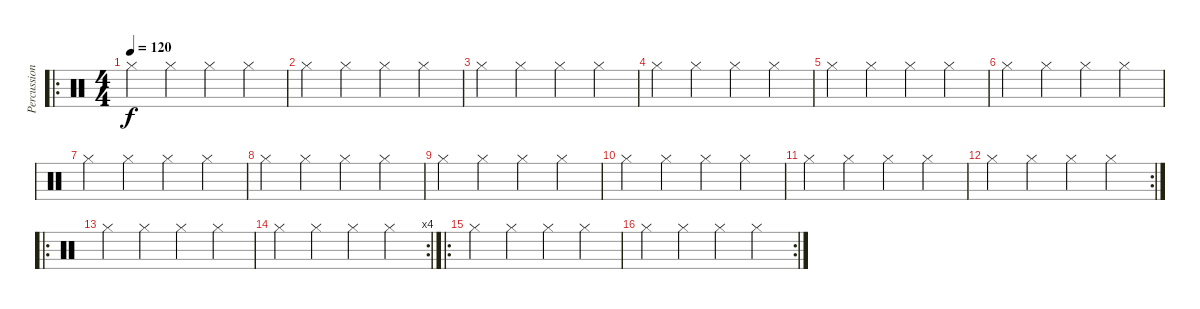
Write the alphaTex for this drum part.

\track ("Percussioni" "Percussion") {instrument percussion}
\staff {score}
\articulation defaults
\ro
\ts (4 4)
\tempo 120
\clef neutral
\ks c "Hi-Hat (closed)".4{dy f} "Hi-Hat (closed)".4 "Hi-Hat (closed)".4 "Hi-Hat (closed)".4
|
"Hi-Hat (closed)".4 "Hi-Hat (closed)".4 "Hi-Hat (closed)".4 "Hi-Hat (closed)".4 |
"Hi-Hat (closed)".4 "Hi-Hat (closed)".4 "Hi-Hat (closed)".4 "Hi-Hat (closed)".4 |
"Hi-Hat (closed)".4 "Hi-Hat (closed)".4 "Hi-Hat (closed)".4 "Hi-Hat (closed)".4 |
"Hi-Hat (closed)".4 "Hi-Hat (closed)".4 "Hi-Hat (closed)".4 "Hi-Hat (closed)".4 |
"Hi-Hat (closed)".4 "Hi-Hat (closed)".4 "Hi-Hat (closed)".4 "Hi-Hat (closed)".4 |
"Hi-Hat (closed)".4 "Hi-Hat (closed)".4 "Hi-Hat (closed)".4 "Hi-Hat (closed)".4 |
"Hi-Hat (closed)".4 "Hi-Hat (closed)".4 "Hi-Hat (closed)".4 "Hi-Hat (closed)".4 |
"Hi-Hat (closed)".4 "Hi-Hat (closed)".4 "Hi-Hat (closed)".4 "Hi-Hat (closed)".4 |
"Hi-Hat (closed)".4 "Hi-Hat (closed)".4 "Hi-Hat (closed)".4 "Hi-Hat (closed)".4 |
"Hi-Hat (closed)".4 "Hi-Hat (closed)".4 "Hi-Hat (closed)".4 "Hi-Hat (closed)".4 |
\rc 2 "Hi-Hat (closed)".4 "Hi-Hat (closed)".4 "Hi-Hat (closed)".4 "Hi-Hat (closed)".4
|
\ro "Hi-Hat (closed)".4 "Hi-Hat (closed)".4 "Hi-Hat (closed)".4 "Hi-Hat (closed)".4
|
\rc 4 "Hi-Hat (closed)".4 "Hi-Hat (closed)".4 "Hi-Hat (closed)".4 "Hi-Hat (closed)".4
|
\ro "Hi-Hat (closed)".4 "Hi-Hat (closed)".4 "Hi-Hat (closed)".4 "Hi-Hat (closed)".4
|
\rc 2 "Hi-Hat (closed)".4 "Hi-Hat (closed)".4 "Hi-Hat (closed)".4 "Hi-Hat (closed)".4
